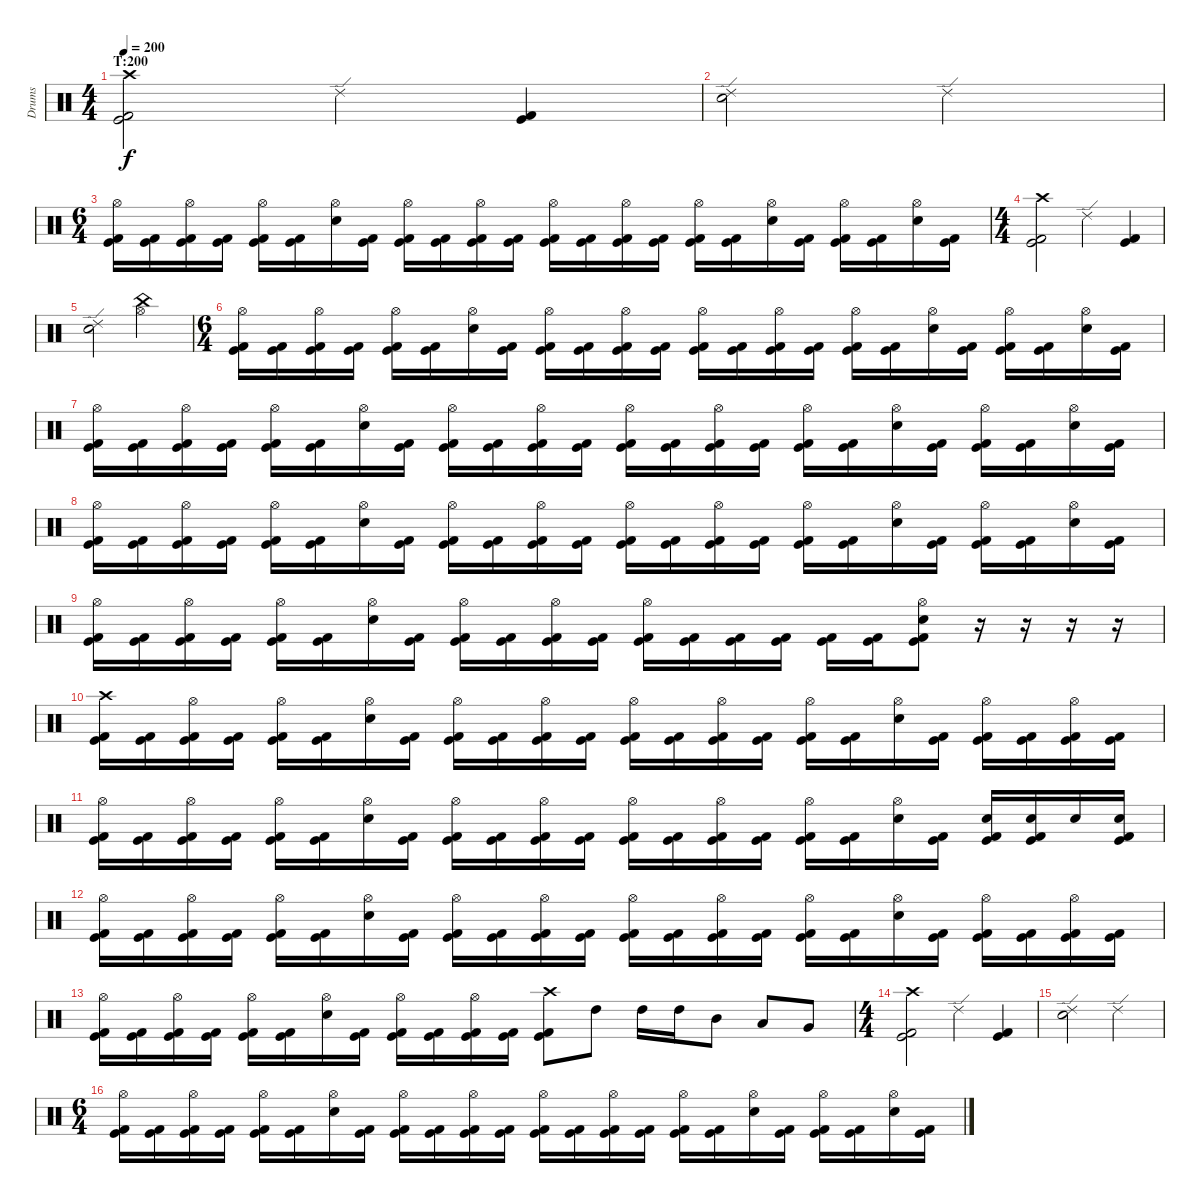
\track ("Drums" "Drums") {instrument percussion}
\staff {score}
\articulation defaults
\ts (4 4)
\section ("" "T:200")
\tempo 200
\clef neutral
\ks c
("Crash high (hit)" "Kick (hit)" "Kick (hit) 2").2{dy f} "Ride (edge) 2".4 ("Kick (hit)" "Kick (hit) 2").4 |
("Ride (edge) 2" "Electric Snare (hit)").2 "Ride (edge) 2".2 |
\ts (6 4)
("Hi-Hat (open)" "Kick (hit)" "Kick (hit) 2").16 ("Kick (hit)" "Kick (hit) 2").16 ("Hi-Hat (open)" "Kick (hit)" "Kick (hit) 2").16 ("Kick (hit)" "Kick (hit) 2").16 ("Hi-Hat (open)" "Kick (hit)" "Kick (hit) 2").16 ("Kick (hit)" "Kick (hit) 2").16 ("Hi-Hat (open)" "Electric Snare (hit)").16 ("Kick (hit)" "Kick (hit) 2").16 ("Hi-Hat (open)" "Kick (hit)" "Kick (hit) 2").16 ("Kick (hit)" "Kick (hit) 2").16 ("Hi-Hat (open)" "Kick (hit)" "Kick (hit) 2").16 ("Kick (hit)" "Kick (hit) 2").16 ("Hi-Hat (open)" "Kick (hit)" "Kick (hit) 2").16 ("Kick (hit)" "Kick (hit) 2").16 ("Hi-Hat (open)" "Kick (hit)" "Kick (hit) 2").16 ("Kick (hit)" "Kick (hit) 2").16 ("Hi-Hat (open)" "Kick (hit)" "Kick (hit) 2").16 ("Kick (hit)" "Kick (hit) 2").16 ("Hi-Hat (open)" "Electric Snare (hit)").16 ("Kick (hit)" "Kick (hit) 2").16 ("Hi-Hat (open)" "Kick (hit)" "Kick (hit) 2").16 ("Kick (hit)" "Kick (hit) 2").16 ("Hi-Hat (open)" "Electric Snare (hit)").16 ("Kick (hit)" "Kick (hit) 2").16 |
\ts (4 4)
("Crash high (hit)" "Kick (hit)" "Kick (hit) 2").2 "Ride (edge) 2".4 ("Kick (hit)" "Kick (hit) 2").4 |
("Ride (edge) 2" "Electric Snare (hit)").2 ("China (hit)" "Hi-Hat (open)").2 |
\ts (6 4)
("Hi-Hat (open)" "Kick (hit)" "Kick (hit) 2").16 ("Kick (hit)" "Kick (hit) 2").16 ("Hi-Hat (open)" "Kick (hit)" "Kick (hit) 2").16 ("Kick (hit)" "Kick (hit) 2").16 ("Hi-Hat (open)" "Kick (hit)" "Kick (hit) 2").16 ("Kick (hit)" "Kick (hit) 2").16 ("Hi-Hat (open)" "Electric Snare (hit)").16 ("Kick (hit)" "Kick (hit) 2").16 ("Hi-Hat (open)" "Kick (hit)" "Kick (hit) 2").16 ("Kick (hit)" "Kick (hit) 2").16 ("Hi-Hat (open)" "Kick (hit)" "Kick (hit) 2").16 ("Kick (hit)" "Kick (hit) 2").16 ("Hi-Hat (open)" "Kick (hit)" "Kick (hit) 2").16 ("Kick (hit)" "Kick (hit) 2").16 ("Hi-Hat (open)" "Kick (hit)" "Kick (hit) 2").16 ("Kick (hit)" "Kick (hit) 2").16 ("Hi-Hat (open)" "Kick (hit)" "Kick (hit) 2").16 ("Kick (hit)" "Kick (hit) 2").16 ("Hi-Hat (open)" "Electric Snare (hit)").16 ("Kick (hit)" "Kick (hit) 2").16 ("Hi-Hat (open)" "Kick (hit)" "Kick (hit) 2").16 ("Kick (hit)" "Kick (hit) 2").16 ("Hi-Hat (open)" "Electric Snare (hit)").16 ("Kick (hit)" "Kick (hit) 2").16 |
("Hi-Hat (open)" "Kick (hit)" "Kick (hit) 2").16 ("Kick (hit)" "Kick (hit) 2").16 ("Hi-Hat (open)" "Kick (hit)" "Kick (hit) 2").16 ("Kick (hit)" "Kick (hit) 2").16 ("Hi-Hat (open)" "Kick (hit)" "Kick (hit) 2").16 ("Kick (hit)" "Kick (hit) 2").16 ("Hi-Hat (open)" "Electric Snare (hit)").16 ("Kick (hit)" "Kick (hit) 2").16 ("Hi-Hat (open)" "Kick (hit)" "Kick (hit) 2").16 ("Kick (hit)" "Kick (hit) 2").16 ("Hi-Hat (open)" "Kick (hit)" "Kick (hit) 2").16 ("Kick (hit)" "Kick (hit) 2").16 ("Hi-Hat (open)" "Kick (hit)" "Kick (hit) 2").16 ("Kick (hit)" "Kick (hit) 2").16 ("Hi-Hat (open)" "Kick (hit)" "Kick (hit) 2").16 ("Kick (hit)" "Kick (hit) 2").16 ("Hi-Hat (open)" "Kick (hit)" "Kick (hit) 2").16 ("Kick (hit)" "Kick (hit) 2").16 ("Hi-Hat (open)" "Electric Snare (hit)").16 ("Kick (hit)" "Kick (hit) 2").16 ("Hi-Hat (open)" "Kick (hit)" "Kick (hit) 2").16 ("Kick (hit)" "Kick (hit) 2").16 ("Hi-Hat (open)" "Electric Snare (hit)").16 ("Kick (hit)" "Kick (hit) 2").16 |
("Hi-Hat (open)" "Kick (hit)" "Kick (hit) 2").16 ("Kick (hit)" "Kick (hit) 2").16 ("Hi-Hat (open)" "Kick (hit)" "Kick (hit) 2").16 ("Kick (hit)" "Kick (hit) 2").16 ("Hi-Hat (open)" "Kick (hit)" "Kick (hit) 2").16 ("Kick (hit)" "Kick (hit) 2").16 ("Hi-Hat (open)" "Electric Snare (hit)").16 ("Kick (hit)" "Kick (hit) 2").16 ("Hi-Hat (open)" "Kick (hit)" "Kick (hit) 2").16 ("Kick (hit)" "Kick (hit) 2").16 ("Hi-Hat (open)" "Kick (hit)" "Kick (hit) 2").16 ("Kick (hit)" "Kick (hit) 2").16 ("Hi-Hat (open)" "Kick (hit)" "Kick (hit) 2").16 ("Kick (hit)" "Kick (hit) 2").16 ("Hi-Hat (open)" "Kick (hit)" "Kick (hit) 2").16 ("Kick (hit)" "Kick (hit) 2").16 ("Hi-Hat (open)" "Kick (hit)" "Kick (hit) 2").16 ("Kick (hit)" "Kick (hit) 2").16 ("Hi-Hat (open)" "Electric Snare (hit)").16 ("Kick (hit)" "Kick (hit) 2").16 ("Hi-Hat (open)" "Kick (hit)" "Kick (hit) 2").16 ("Kick (hit)" "Kick (hit) 2").16 ("Hi-Hat (open)" "Electric Snare (hit)").16 ("Kick (hit)" "Kick (hit) 2").16 |
("Hi-Hat (open)" "Kick (hit)" "Kick (hit) 2").16 ("Kick (hit)" "Kick (hit) 2").16 ("Hi-Hat (open)" "Kick (hit)" "Kick (hit) 2").16 ("Kick (hit)" "Kick (hit) 2").16 ("Hi-Hat (open)" "Kick (hit)" "Kick (hit) 2").16 ("Kick (hit)" "Kick (hit) 2").16 ("Hi-Hat (open)" "Electric Snare (hit)").16 ("Kick (hit)" "Kick (hit) 2").16 ("Hi-Hat (open)" "Kick (hit)" "Kick (hit) 2").16 ("Kick (hit)" "Kick (hit) 2").16 ("Hi-Hat (open)" "Kick (hit)" "Kick (hit) 2").16 ("Kick (hit)" "Kick (hit) 2").16 ("Hi-Hat (open)" "Kick (hit)" "Kick (hit) 2").16 ("Kick (hit)" "Kick (hit) 2").16 ("Kick (hit)" "Kick (hit) 2").16 ("Kick (hit)" "Kick (hit) 2").16 ("Kick (hit)" "Kick (hit) 2").16 ("Kick (hit)" "Kick (hit) 2").16 ("Hi-Hat (open)" "Electric Snare (hit)" "Kick (hit)" "Kick (hit) 2").8 r.16 r.16 r.16 r.16 |
("Crash high (hit)" "Kick (hit)" "Kick (hit) 2").16 ("Kick (hit)" "Kick (hit) 2").16 ("Hi-Hat (open)" "Kick (hit)" "Kick (hit) 2").16 ("Kick (hit)" "Kick (hit) 2").16 ("Hi-Hat (open)" "Kick (hit)" "Kick (hit) 2").16 ("Kick (hit)" "Kick (hit) 2").16 ("Hi-Hat (open)" "Electric Snare (hit)").16 ("Kick (hit)" "Kick (hit) 2").16 ("Hi-Hat (open)" "Kick (hit)" "Kick (hit) 2").16 ("Kick (hit)" "Kick (hit) 2").16 ("Hi-Hat (open)" "Kick (hit)" "Kick (hit) 2").16 ("Kick (hit)" "Kick (hit) 2").16 ("Hi-Hat (open)" "Kick (hit)" "Kick (hit) 2").16 ("Kick (hit)" "Kick (hit) 2").16 ("Hi-Hat (open)" "Kick (hit)" "Kick (hit) 2").16 ("Kick (hit)" "Kick (hit) 2").16 ("Hi-Hat (open)" "Kick (hit)" "Kick (hit) 2").16 ("Kick (hit)" "Kick (hit) 2").16 ("Hi-Hat (open)" "Electric Snare (hit)").16 ("Kick (hit)" "Kick (hit) 2").16 ("Hi-Hat (open)" "Kick (hit)" "Kick (hit) 2").16 ("Kick (hit)" "Kick (hit) 2").16 ("Hi-Hat (open)" "Kick (hit)" "Kick (hit) 2").16 ("Kick (hit)" "Kick (hit) 2").16 |
("Hi-Hat (open)" "Kick (hit)" "Kick (hit) 2").16 ("Kick (hit)" "Kick (hit) 2").16 ("Hi-Hat (open)" "Kick (hit)" "Kick (hit) 2").16 ("Kick (hit)" "Kick (hit) 2").16 ("Hi-Hat (open)" "Kick (hit)" "Kick (hit) 2").16 ("Kick (hit)" "Kick (hit) 2").16 ("Hi-Hat (open)" "Electric Snare (hit)").16 ("Kick (hit)" "Kick (hit) 2").16 ("Hi-Hat (open)" "Kick (hit)" "Kick (hit) 2").16 ("Kick (hit)" "Kick (hit) 2").16 ("Hi-Hat (open)" "Kick (hit)" "Kick (hit) 2").16 ("Kick (hit)" "Kick (hit) 2").16 ("Hi-Hat (open)" "Kick (hit)" "Kick (hit) 2").16 ("Kick (hit)" "Kick (hit) 2").16 ("Hi-Hat (open)" "Kick (hit)" "Kick (hit) 2").16 ("Kick (hit)" "Kick (hit) 2").16 ("Hi-Hat (open)" "Kick (hit)" "Kick (hit) 2").16 ("Kick (hit)" "Kick (hit) 2").16 ("Hi-Hat (open)" "Electric Snare (hit)").16 ("Kick (hit)" "Kick (hit) 2").16 ("Electric Snare (hit)" "Kick (hit)" "Kick (hit) 2").16 ("Electric Snare (hit)" "Kick (hit)" "Kick (hit) 2").16 "Electric Snare (hit)".16 ("Electric Snare (hit)" "Kick (hit)" "Kick (hit) 2").16 |
("Hi-Hat (open)" "Kick (hit)" "Kick (hit) 2").16 ("Kick (hit)" "Kick (hit) 2").16 ("Hi-Hat (open)" "Kick (hit)" "Kick (hit) 2").16 ("Kick (hit)" "Kick (hit) 2").16 ("Hi-Hat (open)" "Kick (hit)" "Kick (hit) 2").16 ("Kick (hit)" "Kick (hit) 2").16 ("Hi-Hat (open)" "Electric Snare (hit)").16 ("Kick (hit)" "Kick (hit) 2").16 ("Hi-Hat (open)" "Kick (hit)" "Kick (hit) 2").16 ("Kick (hit)" "Kick (hit) 2").16 ("Hi-Hat (open)" "Kick (hit)" "Kick (hit) 2").16 ("Kick (hit)" "Kick (hit) 2").16 ("Hi-Hat (open)" "Kick (hit)" "Kick (hit) 2").16 ("Kick (hit)" "Kick (hit) 2").16 ("Hi-Hat (open)" "Kick (hit)" "Kick (hit) 2").16 ("Kick (hit)" "Kick (hit) 2").16 ("Hi-Hat (open)" "Kick (hit)" "Kick (hit) 2").16 ("Kick (hit)" "Kick (hit) 2").16 ("Hi-Hat (open)" "Electric Snare (hit)").16 ("Kick (hit)" "Kick (hit) 2").16 ("Hi-Hat (open)" "Kick (hit)" "Kick (hit) 2").16 ("Kick (hit)" "Kick (hit) 2").16 ("Hi-Hat (open)" "Kick (hit)" "Kick (hit) 2").16 ("Kick (hit)" "Kick (hit) 2").16 |
("Hi-Hat (open)" "Kick (hit)" "Kick (hit) 2").16 ("Kick (hit)" "Kick (hit) 2").16 ("Hi-Hat (open)" "Kick (hit)" "Kick (hit) 2").16 ("Kick (hit)" "Kick (hit) 2").16 ("Hi-Hat (open)" "Kick (hit)" "Kick (hit) 2").16 ("Kick (hit)" "Kick (hit) 2").16 ("Hi-Hat (open)" "Electric Snare (hit)").16 ("Kick (hit)" "Kick (hit) 2").16 ("Hi-Hat (open)" "Kick (hit)" "Kick (hit) 2").16 ("Kick (hit)" "Kick (hit) 2").16 ("Hi-Hat (open)" "Kick (hit)" "Kick (hit) 2").16 ("Kick (hit)" "Kick (hit) 2").16 ("Crash high (hit)" "Kick (hit)" "Kick (hit) 2").8 "High Tom (hit)".8 "High Tom (hit)".16 "High Tom (hit)".16 "Mid Tom (hit)".8 "Low Tom (hit)".8 "Very Low Tom (hit)".8 |
\ts (4 4)
("Crash high (hit)" "Kick (hit)" "Kick (hit) 2").2 "Ride (edge) 2".4 ("Kick (hit)" "Kick (hit) 2").4 |
("Ride (edge) 2" "Electric Snare (hit)").2 "Ride (edge) 2".2 |
\ts (6 4)
("Hi-Hat (open)" "Kick (hit)" "Kick (hit) 2").16 ("Kick (hit)" "Kick (hit) 2").16 ("Hi-Hat (open)" "Kick (hit)" "Kick (hit) 2").16 ("Kick (hit)" "Kick (hit) 2").16 ("Hi-Hat (open)" "Kick (hit)" "Kick (hit) 2").16 ("Kick (hit)" "Kick (hit) 2").16 ("Hi-Hat (open)" "Electric Snare (hit)").16 ("Kick (hit)" "Kick (hit) 2").16 ("Hi-Hat (open)" "Kick (hit)" "Kick (hit) 2").16 ("Kick (hit)" "Kick (hit) 2").16 ("Hi-Hat (open)" "Kick (hit)" "Kick (hit) 2").16 ("Kick (hit)" "Kick (hit) 2").16 ("Hi-Hat (open)" "Kick (hit)" "Kick (hit) 2").16 ("Kick (hit)" "Kick (hit) 2").16 ("Hi-Hat (open)" "Kick (hit)" "Kick (hit) 2").16 ("Kick (hit)" "Kick (hit) 2").16 ("Hi-Hat (open)" "Kick (hit)" "Kick (hit) 2").16 ("Kick (hit)" "Kick (hit) 2").16 ("Hi-Hat (open)" "Electric Snare (hit)").16 ("Kick (hit)" "Kick (hit) 2").16 ("Hi-Hat (open)" "Kick (hit)" "Kick (hit) 2").16 ("Kick (hit)" "Kick (hit) 2").16 ("Hi-Hat (open)" "Electric Snare (hit)").16 ("Kick (hit)" "Kick (hit) 2").16
